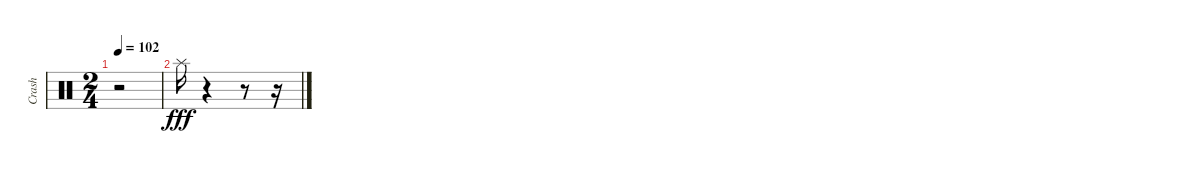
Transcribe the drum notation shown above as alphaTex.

\track ("Crash" "Crash") {instrument percussion}
\staff {score}
\articulation defaults
\ts (2 4)
\tempo 102
\clef neutral
\ks c
r.2{dy fff} |
"Splash (hit)".16 r.4 r.8 r.16
